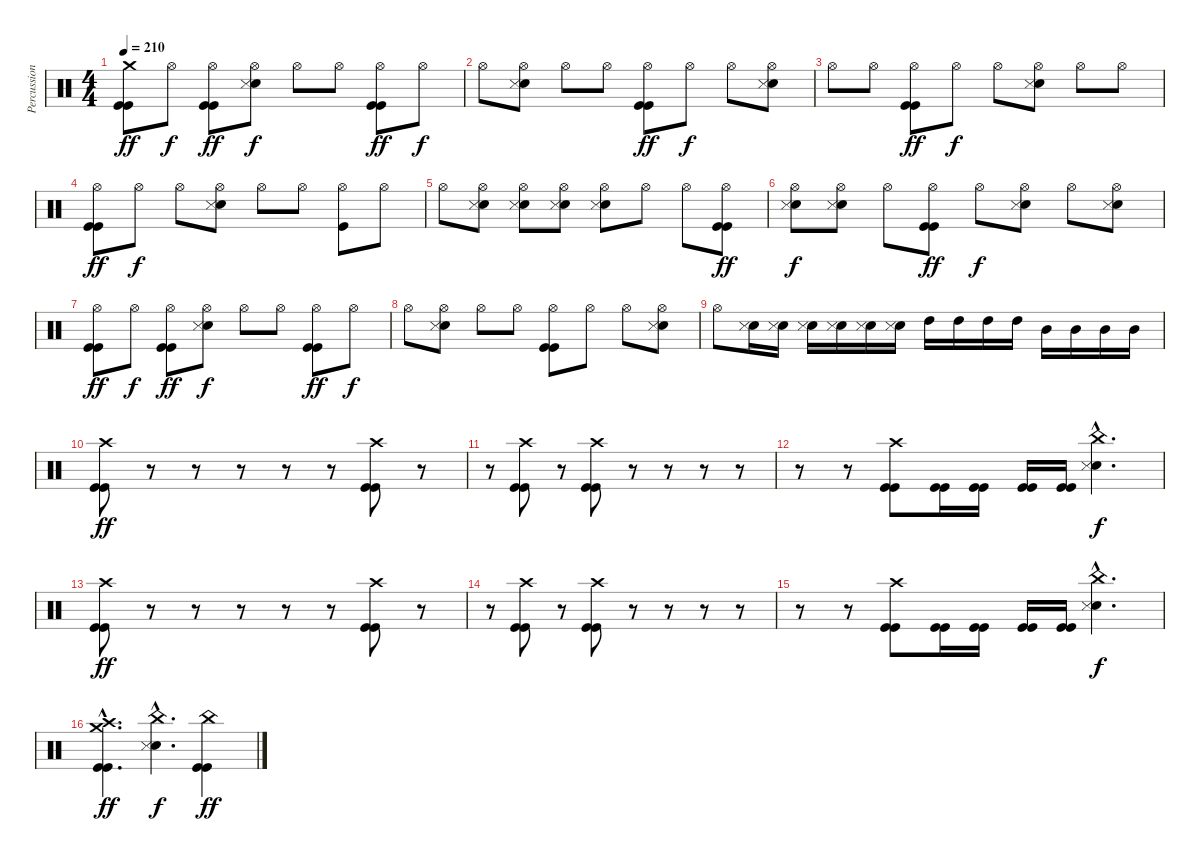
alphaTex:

\track ("Percussion" "Percussion") {instrument percussion}
\staff {score}
\articulation defaults
\ts (4 4)
\tempo 210
\clef neutral
\ks c
("Crash medium (hit)" "Kick (hit)" "Kick (hit)").8{dy ff} "Hi-Hat (open)".8{dy f} ("Hi-Hat (open)" "Kick (hit)" "Kick (hit)").8{dy ff} ("Hi-Hat (open)" "Electric Snare (hit)" "Snare (side stick) 3").8{dy f} "Hi-Hat (open)".8 "Hi-Hat (open)".8 ("Hi-Hat (open)" "Kick (hit)" "Kick (hit)").8{dy ff} "Hi-Hat (open)".8{dy f} |
"Hi-Hat (open)".8 ("Hi-Hat (open)" "Electric Snare (hit)" "Snare (side stick) 3").8 "Hi-Hat (open)".8 "Hi-Hat (open)".8 ("Hi-Hat (open)" "Kick (hit)" "Kick (hit)").8{dy ff} "Hi-Hat (open)".8{dy f} "Hi-Hat (open)".8 ("Hi-Hat (open)" "Electric Snare (hit)" "Snare (side stick) 3").8 |
"Hi-Hat (open)".8 "Hi-Hat (open)".8 ("Hi-Hat (open)" "Kick (hit)" "Kick (hit)").8{dy ff} "Hi-Hat (open)".8{dy f} "Hi-Hat (open)".8 ("Hi-Hat (open)" "Electric Snare (hit)" "Snare (side stick) 3").8 "Hi-Hat (open)".8 "Hi-Hat (open)".8 |
("Hi-Hat (open)" "Kick (hit)" "Kick (hit)").8{dy ff} "Hi-Hat (open)".8{dy f} "Hi-Hat (open)".8 ("Hi-Hat (open)" "Electric Snare (hit)" "Snare (side stick) 3").8 "Hi-Hat (open)".8 "Hi-Hat (open)".8 ("Hi-Hat (open)" "Kick (hit)").8 "Hi-Hat (open)".8 |
"Hi-Hat (open)".8 ("Hi-Hat (open)" "Electric Snare (hit)" "Snare (side stick) 3").8 ("Hi-Hat (open)" "Electric Snare (hit)" "Snare (side stick) 3").8 ("Hi-Hat (open)" "Electric Snare (hit)" "Snare (side stick) 3").8 ("Hi-Hat (open)" "Electric Snare (hit)" "Snare (side stick) 3").8 "Hi-Hat (open)".8 "Hi-Hat (open)".8 ("Hi-Hat (open)" "Kick (hit)" "Kick (hit)").8{dy ff} |
("Hi-Hat (open)" "Electric Snare (hit)" "Snare (side stick) 3").8{dy f} ("Hi-Hat (open)" "Electric Snare (hit)" "Snare (side stick) 3").8 "Hi-Hat (open)".8 ("Hi-Hat (open)" "Kick (hit)" "Kick (hit)").8{dy ff} "Hi-Hat (open)".8{dy f} ("Hi-Hat (open)" "Electric Snare (hit)" "Snare (side stick) 3").8 "Hi-Hat (open)".8 ("Hi-Hat (open)" "Electric Snare (hit)" "Snare (side stick) 3").8 |
("Hi-Hat (open)" "Kick (hit)" "Kick (hit)").8{dy ff} "Hi-Hat (open)".8{dy f} ("Hi-Hat (open)" "Kick (hit)" "Kick (hit)").8{dy ff} ("Hi-Hat (open)" "Electric Snare (hit)" "Snare (side stick) 3").8{dy f} "Hi-Hat (open)".8 "Hi-Hat (open)".8 ("Hi-Hat (open)" "Kick (hit)" "Kick (hit)").8{dy ff} "Hi-Hat (open)".8{dy f} |
"Hi-Hat (open)".8 ("Hi-Hat (open)" "Electric Snare (hit)" "Snare (side stick) 3").8 "Hi-Hat (open)".8 "Hi-Hat (open)".8 ("Hi-Hat (open)" "Kick (hit)" "Kick (hit)").8 "Hi-Hat (open)".8 "Hi-Hat (open)".8 ("Hi-Hat (open)" "Electric Snare (hit)" "Snare (side stick) 3").8 |
"Hi-Hat (open)".8 ("Electric Snare (hit)" "Snare (side stick) 3").16 ("Electric Snare (hit)" "Snare (side stick) 3").16 ("Electric Snare (hit)" "Snare (side stick) 3").16 ("Electric Snare (hit)" "Snare (side stick) 3").16 ("Electric Snare (hit)" "Snare (side stick) 3").16 ("Electric Snare (hit)" "Snare (side stick) 3").16 "High Tom (hit)".16 "High Tom (hit)".16 "High Tom (hit)".16 "High Tom (hit)".16 "Mid Tom (hit)".16 "Mid Tom (hit)".16 "Mid Tom (hit)".16 "Mid Tom (hit)".16 |
("Crash high (hit)" "Kick (hit)" "Kick (hit)").8{dy ff} r.8 r.8 r.8 r.8 r.8 ("Crash high (hit)" "Kick (hit)" "Kick (hit)").8 r.8 |
r.8 ("Crash high (hit)" "Kick (hit)" "Kick (hit)").8 r.8 ("Crash high (hit)" "Kick (hit)" "Kick (hit)").8 r.8 r.8 r.8 r.8 |
r.8 r.8 ("Crash high (hit)" "Kick (hit)" "Kick (hit)").8 ("Kick (hit)" "Kick (hit)").16 ("Kick (hit)" "Kick (hit)").16 ("Kick (hit)" "Kick (hit)").16 ("Kick (hit)" "Kick (hit)").16 ("China (hit)"{hac} "Electric Snare (hit)"{hac} "Snare (side stick) 3"{hac}).4{d dy f} |
("Crash high (hit)" "Kick (hit)" "Kick (hit)").8{dy ff} r.8 r.8 r.8 r.8 r.8 ("Crash high (hit)" "Kick (hit)" "Kick (hit)").8 r.8 |
r.8 ("Crash high (hit)" "Kick (hit)" "Kick (hit)").8 r.8 ("Crash high (hit)" "Kick (hit)" "Kick (hit)").8 r.8 r.8 r.8 r.8 |
r.8 r.8 ("Crash high (hit)" "Kick (hit)" "Kick (hit)").8 ("Kick (hit)" "Kick (hit)").16 ("Kick (hit)" "Kick (hit)").16 ("Kick (hit)" "Kick (hit)").16 ("Kick (hit)" "Kick (hit)").16 ("China (hit)"{hac} "Electric Snare (hit)"{hac} "Snare (side stick) 3"{hac}).4{d dy f} |
("Crash medium (hit)"{hac} "Crash high (hit)"{hac} "Kick (hit)"{hac} "Kick (hit)"{hac}).4{d dy ff} ("China (hit)"{hac} "Electric Snare (hit)"{hac} "Snare (side stick) 3"{hac}).4{d dy f} ("China (hit)" "Kick (hit)" "Kick (hit)").4{dy ff}
